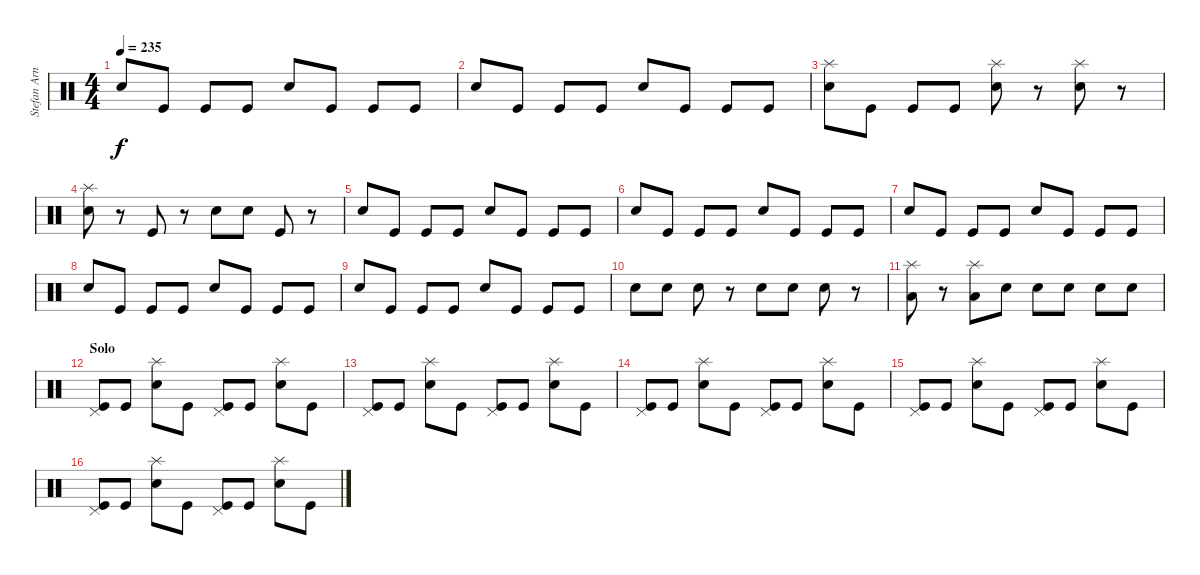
\track ("Stefan Arnold" "Stefan Arn") {instrument percussion}
\staff {score}
\articulation defaults
\ts (4 4)
\tempo 235
\clef neutral
\ks c "Electric Snare (hit)".8{dy f} "Kick (hit)".8 "Kick (hit)".8 "Kick (hit)".8 "Electric Snare (hit)".8 "Kick (hit)".8 "Kick (hit)".8 "Kick (hit)".8
|
"Electric Snare (hit)".8 "Kick (hit)".8 "Kick (hit)".8 "Kick (hit)".8 "Electric Snare (hit)".8 "Kick (hit)".8 "Kick (hit)".8 "Kick (hit)".8 |
("Electric Snare (hit)" "Splash (hit)").8 "Kick (hit)".8 "Kick (hit)".8 "Kick (hit)".8 ("Electric Snare (hit)" "Splash (hit)").8 r.8 ("Electric Snare (hit)" "Splash (hit)").8 r.8 |
("Electric Snare (hit)" "Splash (hit)").8 r.8 "Kick (hit)".8 r.8 "Electric Snare (hit)".8 "Electric Snare (hit)".8 "Kick (hit)".8 r.8 |
"Electric Snare (hit)".8 "Kick (hit)".8 "Kick (hit)".8 "Kick (hit)".8 "Electric Snare (hit)".8 "Kick (hit)".8 "Kick (hit)".8 "Kick (hit)".8 |
"Electric Snare (hit)".8 "Kick (hit)".8 "Kick (hit)".8 "Kick (hit)".8 "Electric Snare (hit)".8 "Kick (hit)".8 "Kick (hit)".8 "Kick (hit)".8 |
"Electric Snare (hit)".8 "Kick (hit)".8 "Kick (hit)".8 "Kick (hit)".8 "Electric Snare (hit)".8 "Kick (hit)".8 "Kick (hit)".8 "Kick (hit)".8 |
"Electric Snare (hit)".8 "Kick (hit)".8 "Kick (hit)".8 "Kick (hit)".8 "Electric Snare (hit)".8 "Kick (hit)".8 "Kick (hit)".8 "Kick (hit)".8 |
"Electric Snare (hit)".8 "Kick (hit)".8 "Kick (hit)".8 "Kick (hit)".8 "Electric Snare (hit)".8 "Kick (hit)".8 "Kick (hit)".8 "Kick (hit)".8 |
"Electric Snare (hit)".8 "Electric Snare (hit)".8 "Electric Snare (hit)".8 r.8 "Electric Snare (hit)".8 "Electric Snare (hit)".8 "Electric Snare (hit)".8 r.8 |
("Low Tom (hit)" "Splash (hit)").8 r.8 ("Low Tom (hit)" "Splash (hit)").8 "Electric Snare (hit)".8 "Electric Snare (hit)".8 "Electric Snare (hit)".8 "Electric Snare (hit)".8 "Electric Snare (hit)".8 |
\section ("" "Solo")
("Kick (hit)" "Pedal Hi-Hat (hit)").8 "Kick (hit)".8 ("Electric Snare (hit)" "Splash (hit)").8 "Kick (hit)".8 ("Kick (hit)" "Pedal Hi-Hat (hit)").8 "Kick (hit)".8 ("Electric Snare (hit)" "Splash (hit)").8 "Kick (hit)".8 |
("Kick (hit)" "Pedal Hi-Hat (hit)").8 "Kick (hit)".8 ("Electric Snare (hit)" "Splash (hit)").8 "Kick (hit)".8 ("Kick (hit)" "Pedal Hi-Hat (hit)").8 "Kick (hit)".8 ("Electric Snare (hit)" "Splash (hit)").8 "Kick (hit)".8 |
("Kick (hit)" "Pedal Hi-Hat (hit)").8 "Kick (hit)".8 ("Electric Snare (hit)" "Splash (hit)").8 "Kick (hit)".8 ("Kick (hit)" "Pedal Hi-Hat (hit)").8 "Kick (hit)".8 ("Electric Snare (hit)" "Splash (hit)").8 "Kick (hit)".8 |
("Kick (hit)" "Pedal Hi-Hat (hit)").8 "Kick (hit)".8 ("Electric Snare (hit)" "Splash (hit)").8 "Kick (hit)".8 ("Kick (hit)" "Pedal Hi-Hat (hit)").8 "Kick (hit)".8 ("Electric Snare (hit)" "Splash (hit)").8 "Kick (hit)".8 |
("Kick (hit)" "Pedal Hi-Hat (hit)").8 "Kick (hit)".8 ("Electric Snare (hit)" "Splash (hit)").8 "Kick (hit)".8 ("Kick (hit)" "Pedal Hi-Hat (hit)").8 "Kick (hit)".8 ("Electric Snare (hit)" "Splash (hit)").8 "Kick (hit)".8
